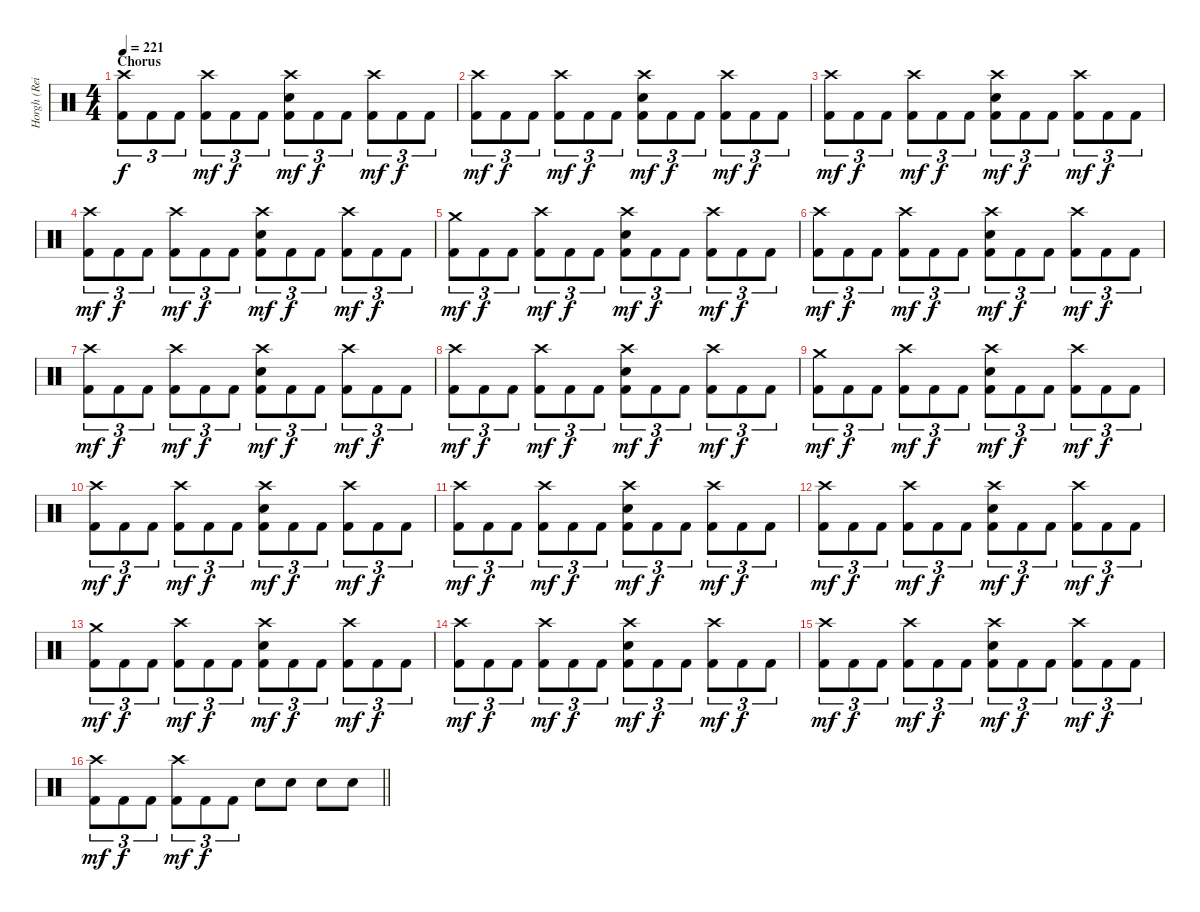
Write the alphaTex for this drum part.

\track ("Horgh (Reidar Horghagen)" "Horgh (Rei") {instrument percussion}
\staff {score}
\articulation defaults
\ts (4 4)
\section ("" "Chorus")
\tempo 221
\clef neutral
\ks c
("Crash high (hit)" "Kick (hit) 2").8{tu (3 2) dy f} "Kick (hit) 2".8{tu (3 2)} "Kick (hit) 2".8{tu (3 2)} ("Crash high (hit)" "Kick (hit) 2").8{tu (3 2) dy mf} "Kick (hit) 2".8{tu (3 2) dy f} "Kick (hit) 2".8{tu (3 2)} ("Crash high (hit)" "Snare (hit) 2" "Kick (hit) 2").8{tu (3 2) dy mf} "Kick (hit) 2".8{tu (3 2) dy f} "Kick (hit) 2".8{tu (3 2)} ("Crash high (hit)" "Kick (hit) 2").8{tu (3 2) dy mf} "Kick (hit) 2".8{tu (3 2) dy f} "Kick (hit) 2".8{tu (3 2)} |
("Crash high (hit)" "Kick (hit) 2").8{tu (3 2) dy mf} "Kick (hit) 2".8{tu (3 2) dy f} "Kick (hit) 2".8{tu (3 2)} ("Crash high (hit)" "Kick (hit) 2").8{tu (3 2) dy mf} "Kick (hit) 2".8{tu (3 2) dy f} "Kick (hit) 2".8{tu (3 2)} ("Crash high (hit)" "Snare (hit) 2" "Kick (hit) 2").8{tu (3 2) dy mf} "Kick (hit) 2".8{tu (3 2) dy f} "Kick (hit) 2".8{tu (3 2)} ("Crash high (hit)" "Kick (hit) 2").8{tu (3 2) dy mf} "Kick (hit) 2".8{tu (3 2) dy f} "Kick (hit) 2".8{tu (3 2)} |
("Crash high (hit)" "Kick (hit) 2").8{tu (3 2) dy mf} "Kick (hit) 2".8{tu (3 2) dy f} "Kick (hit) 2".8{tu (3 2)} ("Crash high (hit)" "Kick (hit) 2").8{tu (3 2) dy mf} "Kick (hit) 2".8{tu (3 2) dy f} "Kick (hit) 2".8{tu (3 2)} ("Crash high (hit)" "Snare (hit) 2" "Kick (hit) 2").8{tu (3 2) dy mf} "Kick (hit) 2".8{tu (3 2) dy f} "Kick (hit) 2".8{tu (3 2)} ("Crash high (hit)" "Kick (hit) 2").8{tu (3 2) dy mf} "Kick (hit) 2".8{tu (3 2) dy f} "Kick (hit) 2".8{tu (3 2)} |
("Crash high (hit)" "Kick (hit) 2").8{tu (3 2) dy mf} "Kick (hit) 2".8{tu (3 2) dy f} "Kick (hit) 2".8{tu (3 2)} ("Crash high (hit)" "Kick (hit) 2").8{tu (3 2) dy mf} "Kick (hit) 2".8{tu (3 2) dy f} "Kick (hit) 2".8{tu (3 2)} ("Crash high (hit)" "Snare (hit) 2" "Kick (hit) 2").8{tu (3 2) dy mf} "Kick (hit) 2".8{tu (3 2) dy f} "Kick (hit) 2".8{tu (3 2)} ("Crash high (hit)" "Kick (hit) 2").8{tu (3 2) dy mf} "Kick (hit) 2".8{tu (3 2) dy f} "Kick (hit) 2".8{tu (3 2)} |
("Crash medium (hit)" "Kick (hit) 2").8{tu (3 2) dy mf} "Kick (hit) 2".8{tu (3 2) dy f} "Kick (hit) 2".8{tu (3 2)} ("Crash high (hit)" "Kick (hit) 2").8{tu (3 2) dy mf} "Kick (hit) 2".8{tu (3 2) dy f} "Kick (hit) 2".8{tu (3 2)} ("Crash high (hit)" "Snare (hit) 2" "Kick (hit) 2").8{tu (3 2) dy mf} "Kick (hit) 2".8{tu (3 2) dy f} "Kick (hit) 2".8{tu (3 2)} ("Crash high (hit)" "Kick (hit) 2").8{tu (3 2) dy mf} "Kick (hit) 2".8{tu (3 2) dy f} "Kick (hit) 2".8{tu (3 2)} |
("Crash high (hit)" "Kick (hit) 2").8{tu (3 2) dy mf} "Kick (hit) 2".8{tu (3 2) dy f} "Kick (hit) 2".8{tu (3 2)} ("Crash high (hit)" "Kick (hit) 2").8{tu (3 2) dy mf} "Kick (hit) 2".8{tu (3 2) dy f} "Kick (hit) 2".8{tu (3 2)} ("Crash high (hit)" "Snare (hit) 2" "Kick (hit) 2").8{tu (3 2) dy mf} "Kick (hit) 2".8{tu (3 2) dy f} "Kick (hit) 2".8{tu (3 2)} ("Crash high (hit)" "Kick (hit) 2").8{tu (3 2) dy mf} "Kick (hit) 2".8{tu (3 2) dy f} "Kick (hit) 2".8{tu (3 2)} |
("Crash high (hit)" "Kick (hit) 2").8{tu (3 2) dy mf} "Kick (hit) 2".8{tu (3 2) dy f} "Kick (hit) 2".8{tu (3 2)} ("Crash high (hit)" "Kick (hit) 2").8{tu (3 2) dy mf} "Kick (hit) 2".8{tu (3 2) dy f} "Kick (hit) 2".8{tu (3 2)} ("Crash high (hit)" "Snare (hit) 2" "Kick (hit) 2").8{tu (3 2) dy mf} "Kick (hit) 2".8{tu (3 2) dy f} "Kick (hit) 2".8{tu (3 2)} ("Crash high (hit)" "Kick (hit) 2").8{tu (3 2) dy mf} "Kick (hit) 2".8{tu (3 2) dy f} "Kick (hit) 2".8{tu (3 2)} |
("Crash high (hit)" "Kick (hit) 2").8{tu (3 2) dy mf} "Kick (hit) 2".8{tu (3 2) dy f} "Kick (hit) 2".8{tu (3 2)} ("Crash high (hit)" "Kick (hit) 2").8{tu (3 2) dy mf} "Kick (hit) 2".8{tu (3 2) dy f} "Kick (hit) 2".8{tu (3 2)} ("Crash high (hit)" "Snare (hit) 2" "Kick (hit) 2").8{tu (3 2) dy mf} "Kick (hit) 2".8{tu (3 2) dy f} "Kick (hit) 2".8{tu (3 2)} ("Crash high (hit)" "Kick (hit) 2").8{tu (3 2) dy mf} "Kick (hit) 2".8{tu (3 2) dy f} "Kick (hit) 2".8{tu (3 2)} |
("Crash medium (hit)" "Kick (hit) 2").8{tu (3 2) dy mf} "Kick (hit) 2".8{tu (3 2) dy f} "Kick (hit) 2".8{tu (3 2)} ("Crash high (hit)" "Kick (hit) 2").8{tu (3 2) dy mf} "Kick (hit) 2".8{tu (3 2) dy f} "Kick (hit) 2".8{tu (3 2)} ("Crash high (hit)" "Snare (hit) 2" "Kick (hit) 2").8{tu (3 2) dy mf} "Kick (hit) 2".8{tu (3 2) dy f} "Kick (hit) 2".8{tu (3 2)} ("Crash high (hit)" "Kick (hit) 2").8{tu (3 2) dy mf} "Kick (hit) 2".8{tu (3 2) dy f} "Kick (hit) 2".8{tu (3 2)} |
("Crash high (hit)" "Kick (hit) 2").8{tu (3 2) dy mf} "Kick (hit) 2".8{tu (3 2) dy f} "Kick (hit) 2".8{tu (3 2)} ("Crash high (hit)" "Kick (hit) 2").8{tu (3 2) dy mf} "Kick (hit) 2".8{tu (3 2) dy f} "Kick (hit) 2".8{tu (3 2)} ("Crash high (hit)" "Snare (hit) 2" "Kick (hit) 2").8{tu (3 2) dy mf} "Kick (hit) 2".8{tu (3 2) dy f} "Kick (hit) 2".8{tu (3 2)} ("Crash high (hit)" "Kick (hit) 2").8{tu (3 2) dy mf} "Kick (hit) 2".8{tu (3 2) dy f} "Kick (hit) 2".8{tu (3 2)} |
("Crash high (hit)" "Kick (hit) 2").8{tu (3 2) dy mf} "Kick (hit) 2".8{tu (3 2) dy f} "Kick (hit) 2".8{tu (3 2)} ("Crash high (hit)" "Kick (hit) 2").8{tu (3 2) dy mf} "Kick (hit) 2".8{tu (3 2) dy f} "Kick (hit) 2".8{tu (3 2)} ("Crash high (hit)" "Snare (hit) 2" "Kick (hit) 2").8{tu (3 2) dy mf} "Kick (hit) 2".8{tu (3 2) dy f} "Kick (hit) 2".8{tu (3 2)} ("Crash high (hit)" "Kick (hit) 2").8{tu (3 2) dy mf} "Kick (hit) 2".8{tu (3 2) dy f} "Kick (hit) 2".8{tu (3 2)} |
("Crash high (hit)" "Kick (hit) 2").8{tu (3 2) dy mf} "Kick (hit) 2".8{tu (3 2) dy f} "Kick (hit) 2".8{tu (3 2)} ("Crash high (hit)" "Kick (hit) 2").8{tu (3 2) dy mf} "Kick (hit) 2".8{tu (3 2) dy f} "Kick (hit) 2".8{tu (3 2)} ("Crash high (hit)" "Snare (hit) 2" "Kick (hit) 2").8{tu (3 2) dy mf} "Kick (hit) 2".8{tu (3 2) dy f} "Kick (hit) 2".8{tu (3 2)} ("Crash high (hit)" "Kick (hit) 2").8{tu (3 2) dy mf} "Kick (hit) 2".8{tu (3 2) dy f} "Kick (hit) 2".8{tu (3 2)} |
("Crash medium (hit)" "Kick (hit) 2").8{tu (3 2) dy mf} "Kick (hit) 2".8{tu (3 2) dy f} "Kick (hit) 2".8{tu (3 2)} ("Crash high (hit)" "Kick (hit) 2").8{tu (3 2) dy mf} "Kick (hit) 2".8{tu (3 2) dy f} "Kick (hit) 2".8{tu (3 2)} ("Crash high (hit)" "Snare (hit) 2" "Kick (hit) 2").8{tu (3 2) dy mf} "Kick (hit) 2".8{tu (3 2) dy f} "Kick (hit) 2".8{tu (3 2)} ("Crash high (hit)" "Kick (hit) 2").8{tu (3 2) dy mf} "Kick (hit) 2".8{tu (3 2) dy f} "Kick (hit) 2".8{tu (3 2)} |
("Crash high (hit)" "Kick (hit) 2").8{tu (3 2) dy mf} "Kick (hit) 2".8{tu (3 2) dy f} "Kick (hit) 2".8{tu (3 2)} ("Crash high (hit)" "Kick (hit) 2").8{tu (3 2) dy mf} "Kick (hit) 2".8{tu (3 2) dy f} "Kick (hit) 2".8{tu (3 2)} ("Crash high (hit)" "Snare (hit) 2" "Kick (hit) 2").8{tu (3 2) dy mf} "Kick (hit) 2".8{tu (3 2) dy f} "Kick (hit) 2".8{tu (3 2)} ("Crash high (hit)" "Kick (hit) 2").8{tu (3 2) dy mf} "Kick (hit) 2".8{tu (3 2) dy f} "Kick (hit) 2".8{tu (3 2)} |
("Crash high (hit)" "Kick (hit) 2").8{tu (3 2) dy mf} "Kick (hit) 2".8{tu (3 2) dy f} "Kick (hit) 2".8{tu (3 2)} ("Crash high (hit)" "Kick (hit) 2").8{tu (3 2) dy mf} "Kick (hit) 2".8{tu (3 2) dy f} "Kick (hit) 2".8{tu (3 2)} ("Crash high (hit)" "Snare (hit) 2" "Kick (hit) 2").8{tu (3 2) dy mf} "Kick (hit) 2".8{tu (3 2) dy f} "Kick (hit) 2".8{tu (3 2)} ("Crash high (hit)" "Kick (hit) 2").8{tu (3 2) dy mf} "Kick (hit) 2".8{tu (3 2) dy f} "Kick (hit) 2".8{tu (3 2)} |
\barLineRight lightlight
("Crash high (hit)" "Kick (hit) 2").8{tu (3 2) dy mf} "Kick (hit) 2".8{tu (3 2) dy f} "Kick (hit) 2".8{tu (3 2)} ("Crash high (hit)" "Kick (hit) 2").8{tu (3 2) dy mf} "Kick (hit) 2".8{tu (3 2) dy f} "Kick (hit) 2".8{tu (3 2)} "Snare (hit) 2".8 "Snare (hit) 2".8 "Snare (hit) 2".8 "Snare (hit) 2".8
